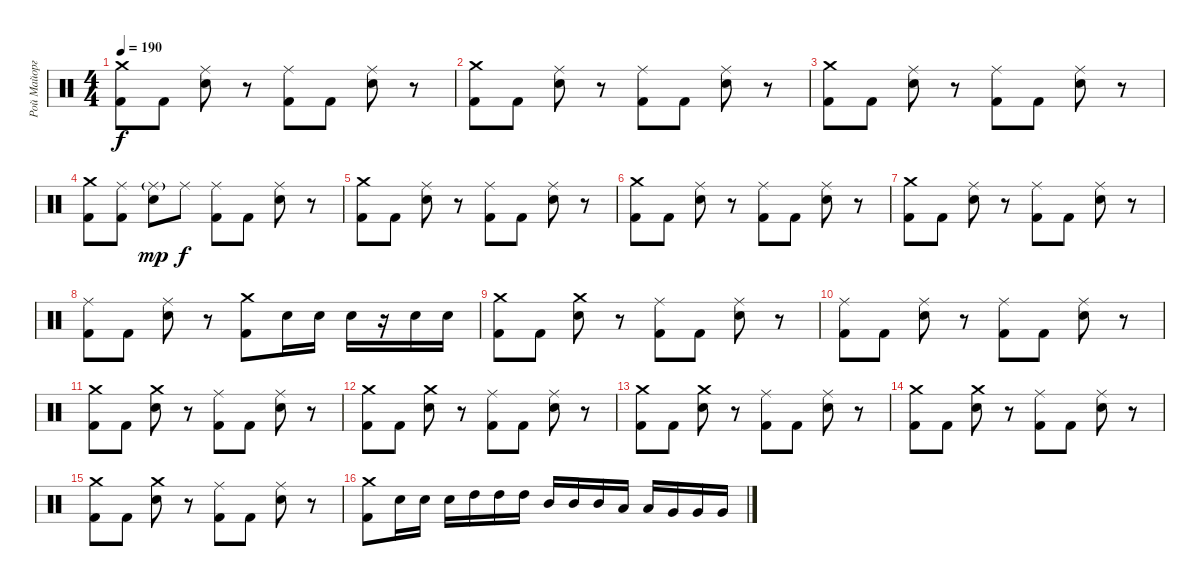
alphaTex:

\track ("Рой Майорга" "Рой Майорг") {instrument percussion}
\staff {score}
\articulation defaults
\ts (4 4)
\tempo 190
\clef neutral
\ks c
("Crash medium (hit)" "Kick (hit) 2").8{dy f} "Kick (hit) 2".8 ("Ride (middle)" "Electric Snare (hit)").8 r.8 ("Ride (middle)" "Kick (hit) 2").8 "Kick (hit) 2".8 ("Ride (middle)" "Electric Snare (hit)").8 r.8 |
("Crash medium (hit)" "Kick (hit) 2").8 "Kick (hit) 2".8 ("Ride (middle)" "Electric Snare (hit)").8 r.8 ("Ride (middle)" "Kick (hit) 2").8 "Kick (hit) 2".8 ("Ride (middle)" "Electric Snare (hit)").8 r.8 |
("Crash medium (hit)" "Kick (hit) 2").8 "Kick (hit) 2".8 ("Ride (middle)" "Electric Snare (hit)").8 r.8 ("Ride (middle)" "Kick (hit) 2").8 "Kick (hit) 2".8 ("Ride (middle)" "Electric Snare (hit)").8 r.8 |
("Crash medium (hit)" "Kick (hit) 2").8 ("Ride (middle)" "Kick (hit) 2").8 ("Ride (middle)"{g} "Electric Snare (hit)").8{dy mp} "Ride (middle)".8{dy f} ("Ride (middle)" "Kick (hit) 2").8 "Kick (hit) 2".8 ("Ride (middle)" "Electric Snare (hit)").8 r.8 |
("Crash medium (hit)" "Kick (hit) 2").8 "Kick (hit) 2".8 ("Ride (middle)" "Electric Snare (hit)").8 r.8 ("Ride (middle)" "Kick (hit) 2").8 "Kick (hit) 2".8 ("Ride (middle)" "Electric Snare (hit)").8 r.8 |
("Crash medium (hit)" "Kick (hit) 2").8 "Kick (hit) 2".8 ("Ride (middle)" "Electric Snare (hit)").8 r.8 ("Ride (middle)" "Kick (hit) 2").8 "Kick (hit) 2".8 ("Ride (middle)" "Electric Snare (hit)").8 r.8 |
("Crash medium (hit)" "Kick (hit) 2").8 "Kick (hit) 2".8 ("Ride (middle)" "Electric Snare (hit)").8 r.8 ("Ride (middle)" "Kick (hit) 2").8 "Kick (hit) 2".8 ("Ride (middle)" "Electric Snare (hit)").8 r.8 |
("Ride (middle)" "Kick (hit) 2").8 "Kick (hit) 2".8 ("Ride (middle)" "Electric Snare (hit)").8 r.8 ("Crash medium (hit)" "Kick (hit) 2").8 "Electric Snare (hit)".16 "Electric Snare (hit)".16 "Electric Snare (hit)".16 r.16 "Electric Snare (hit)".16 "Electric Snare (hit)".16 |
("Crash medium (hit)" "Kick (hit) 2").8 "Kick (hit) 2".8 ("Crash medium (hit)" "Electric Snare (hit)").8 r.8 ("Ride (middle)" "Kick (hit) 2").8 "Kick (hit) 2".8 ("Ride (middle)" "Electric Snare (hit)").8 r.8 |
("Ride (middle)" "Kick (hit) 2").8 "Kick (hit) 2".8 ("Ride (middle)" "Electric Snare (hit)").8 r.8 ("Ride (middle)" "Kick (hit) 2").8 "Kick (hit) 2".8 ("Ride (middle)" "Electric Snare (hit)").8 r.8 |
("Crash medium (hit)" "Kick (hit) 2").8 "Kick (hit) 2".8 ("Crash medium (hit)" "Electric Snare (hit)").8 r.8 ("Ride (middle)" "Kick (hit) 2").8 "Kick (hit) 2".8 ("Ride (middle)" "Electric Snare (hit)").8 r.8 |
("Crash medium (hit)" "Kick (hit) 2").8 "Kick (hit) 2".8 ("Crash medium (hit)" "Electric Snare (hit)").8 r.8 ("Ride (middle)" "Kick (hit) 2").8 "Kick (hit) 2".8 ("Ride (middle)" "Electric Snare (hit)").8 r.8 |
("Crash medium (hit)" "Kick (hit) 2").8 "Kick (hit) 2".8 ("Crash medium (hit)" "Electric Snare (hit)").8 r.8 ("Ride (middle)" "Kick (hit) 2").8 "Kick (hit) 2".8 ("Ride (middle)" "Electric Snare (hit)").8 r.8 |
("Crash medium (hit)" "Kick (hit) 2").8 "Kick (hit) 2".8 ("Crash medium (hit)" "Electric Snare (hit)").8 r.8 ("Ride (middle)" "Kick (hit) 2").8 "Kick (hit) 2".8 ("Ride (middle)" "Electric Snare (hit)").8 r.8 |
("Crash medium (hit)" "Kick (hit) 2").8 "Kick (hit) 2".8 ("Crash medium (hit)" "Electric Snare (hit)").8 r.8 ("Ride (middle)" "Kick (hit) 2").8 "Kick (hit) 2".8 ("Ride (middle)" "Electric Snare (hit)").8 r.8 |
("Crash medium (hit)" "Kick (hit) 2").8 "Electric Snare (hit)".16 "Electric Snare (hit)".16 "Electric Snare (hit)".16 "High Tom (hit)".16 "High Tom (hit)".16 "High Tom (hit)".16 "Mid Tom (hit)".16 "Mid Tom (hit)".16 "Mid Tom (hit)".16 "Low Tom (hit)".16 "Low Tom (hit)".16 "Very Low Tom (hit)".16 "Very Low Tom (hit)".16 "Very Low Tom (hit)".16
